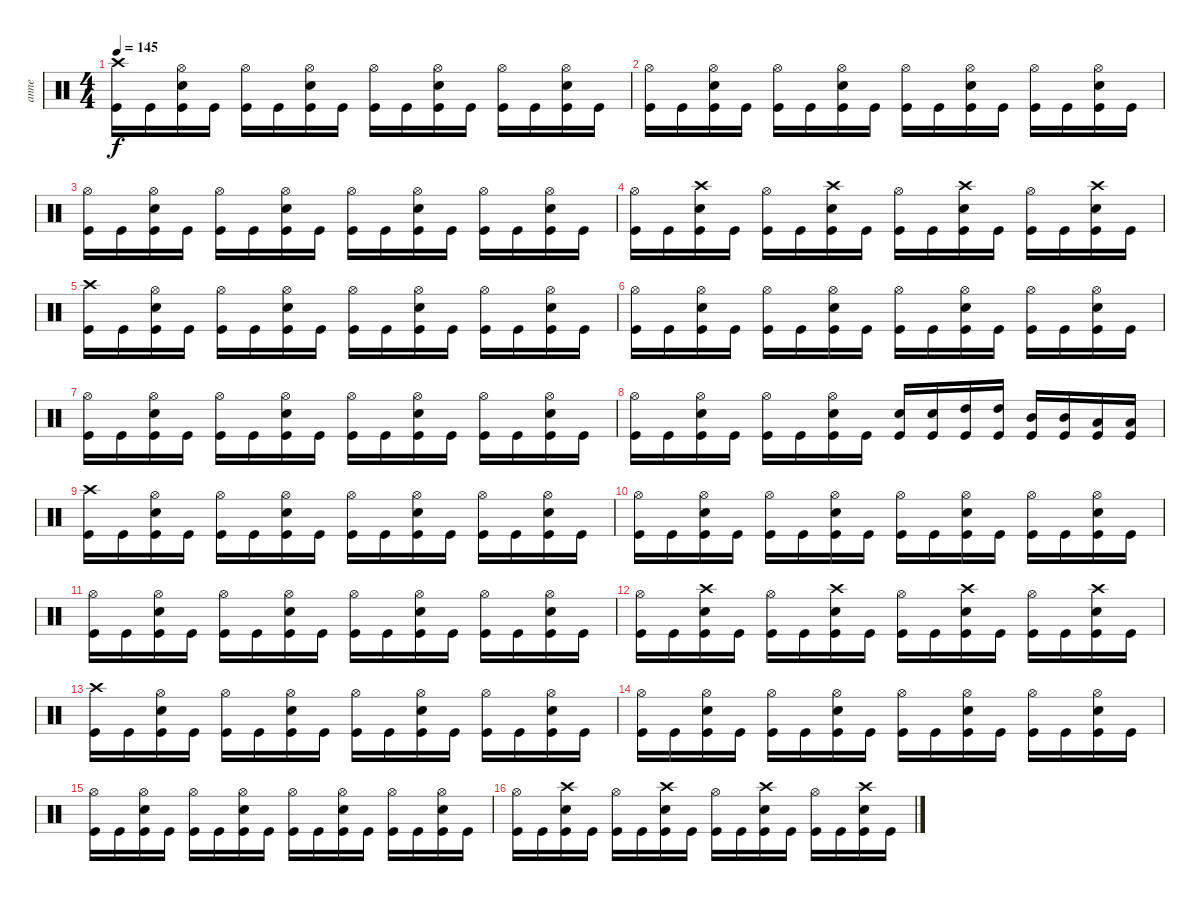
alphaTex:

\track ("anne" "anne") {instrument percussion}
\staff {score}
\articulation defaults
\ts (4 4)
\tempo 145
\clef neutral
\ks c
("Crash high (hit)" "Kick (hit)").16{dy f} "Kick (hit)".16 ("Hi-Hat (open)" "Snare (hit) 2" "Kick (hit)").16 "Kick (hit)".16 ("Hi-Hat (open)" "Kick (hit)").16 "Kick (hit)".16 ("Hi-Hat (open)" "Snare (hit) 2" "Kick (hit)").16 "Kick (hit)".16 ("Hi-Hat (open)" "Kick (hit)").16 "Kick (hit)".16 ("Hi-Hat (open)" "Snare (hit) 2" "Kick (hit)").16 "Kick (hit)".16 ("Hi-Hat (open)" "Kick (hit)").16 "Kick (hit)".16 ("Hi-Hat (open)" "Snare (hit) 2" "Kick (hit)").16 "Kick (hit)".16 |
("Hi-Hat (open)" "Kick (hit)").16 "Kick (hit)".16 ("Hi-Hat (open)" "Snare (hit) 2" "Kick (hit)").16 "Kick (hit)".16 ("Hi-Hat (open)" "Kick (hit)").16 "Kick (hit)".16 ("Hi-Hat (open)" "Snare (hit) 2" "Kick (hit)").16 "Kick (hit)".16 ("Hi-Hat (open)" "Kick (hit)").16 "Kick (hit)".16 ("Hi-Hat (open)" "Snare (hit) 2" "Kick (hit)").16 "Kick (hit)".16 ("Hi-Hat (open)" "Kick (hit)").16 "Kick (hit)".16 ("Hi-Hat (open)" "Snare (hit) 2" "Kick (hit)").16 "Kick (hit)".16 |
("Hi-Hat (open)" "Kick (hit)").16 "Kick (hit)".16 ("Hi-Hat (open)" "Snare (hit) 2" "Kick (hit)").16 "Kick (hit)".16 ("Hi-Hat (open)" "Kick (hit)").16 "Kick (hit)".16 ("Hi-Hat (open)" "Snare (hit) 2" "Kick (hit)").16 "Kick (hit)".16 ("Hi-Hat (open)" "Kick (hit)").16 "Kick (hit)".16 ("Hi-Hat (open)" "Snare (hit) 2" "Kick (hit)").16 "Kick (hit)".16 ("Hi-Hat (open)" "Kick (hit)").16 "Kick (hit)".16 ("Hi-Hat (open)" "Snare (hit) 2" "Kick (hit)").16 "Kick (hit)".16 |
("Hi-Hat (open)" "Kick (hit)").16 "Kick (hit)".16 ("Crash high (hit)" "Snare (hit) 2" "Kick (hit)").16 "Kick (hit)".16 ("Hi-Hat (open)" "Kick (hit)").16 "Kick (hit)".16 ("Crash high (hit)" "Snare (hit) 2" "Kick (hit)").16 "Kick (hit)".16 ("Hi-Hat (open)" "Kick (hit)").16 "Kick (hit)".16 ("Crash high (hit)" "Snare (hit) 2" "Kick (hit)").16 "Kick (hit)".16 ("Hi-Hat (open)" "Kick (hit)").16 "Kick (hit)".16 ("Crash high (hit)" "Snare (hit) 2" "Kick (hit)").16 "Kick (hit)".16 |
("Crash high (hit)" "Kick (hit)").16 "Kick (hit)".16 ("Hi-Hat (open)" "Snare (hit) 2" "Kick (hit)").16 "Kick (hit)".16 ("Hi-Hat (open)" "Kick (hit)").16 "Kick (hit)".16 ("Hi-Hat (open)" "Snare (hit) 2" "Kick (hit)").16 "Kick (hit)".16 ("Hi-Hat (open)" "Kick (hit)").16 "Kick (hit)".16 ("Hi-Hat (open)" "Snare (hit) 2" "Kick (hit)").16 "Kick (hit)".16 ("Hi-Hat (open)" "Kick (hit)").16 "Kick (hit)".16 ("Hi-Hat (open)" "Snare (hit) 2" "Kick (hit)").16 "Kick (hit)".16 |
("Hi-Hat (open)" "Kick (hit)").16 "Kick (hit)".16 ("Hi-Hat (open)" "Snare (hit) 2" "Kick (hit)").16 "Kick (hit)".16 ("Hi-Hat (open)" "Kick (hit)").16 "Kick (hit)".16 ("Hi-Hat (open)" "Snare (hit) 2" "Kick (hit)").16 "Kick (hit)".16 ("Hi-Hat (open)" "Kick (hit)").16 "Kick (hit)".16 ("Hi-Hat (open)" "Snare (hit) 2" "Kick (hit)").16 "Kick (hit)".16 ("Hi-Hat (open)" "Kick (hit)").16 "Kick (hit)".16 ("Hi-Hat (open)" "Snare (hit) 2" "Kick (hit)").16 "Kick (hit)".16 |
("Hi-Hat (open)" "Kick (hit)").16 "Kick (hit)".16 ("Hi-Hat (open)" "Snare (hit) 2" "Kick (hit)").16 "Kick (hit)".16 ("Hi-Hat (open)" "Kick (hit)").16 "Kick (hit)".16 ("Hi-Hat (open)" "Snare (hit) 2" "Kick (hit)").16 "Kick (hit)".16 ("Hi-Hat (open)" "Kick (hit)").16 "Kick (hit)".16 ("Hi-Hat (open)" "Snare (hit) 2" "Kick (hit)").16 "Kick (hit)".16 ("Hi-Hat (open)" "Kick (hit)").16 "Kick (hit)".16 ("Hi-Hat (open)" "Snare (hit) 2" "Kick (hit)").16 "Kick (hit)".16 |
("Hi-Hat (open)" "Kick (hit)").16 "Kick (hit)".16 ("Hi-Hat (open)" "Snare (hit) 2" "Kick (hit)").16 "Kick (hit)".16 ("Hi-Hat (open)" "Kick (hit)").16 "Kick (hit)".16 ("Hi-Hat (open)" "Snare (hit) 2" "Kick (hit)").16 "Kick (hit)".16 ("Snare (hit) 2" "Kick (hit)").16 ("Snare (hit) 2" "Kick (hit)").16 ("High Tom (hit)" "Kick (hit)").16 ("High Tom (hit)" "Kick (hit)").16 ("Mid Tom (hit)" "Kick (hit)").16 ("Mid Tom (hit)" "Kick (hit)").16 ("Low Tom (hit)" "Kick (hit)").16 ("Low Tom (hit)" "Kick (hit)").16 |
("Crash high (hit)" "Kick (hit)").16 "Kick (hit)".16 ("Hi-Hat (open)" "Snare (hit) 2" "Kick (hit)").16 "Kick (hit)".16 ("Hi-Hat (open)" "Kick (hit)").16 "Kick (hit)".16 ("Hi-Hat (open)" "Snare (hit) 2" "Kick (hit)").16 "Kick (hit)".16 ("Hi-Hat (open)" "Kick (hit)").16 "Kick (hit)".16 ("Hi-Hat (open)" "Snare (hit) 2" "Kick (hit)").16 "Kick (hit)".16 ("Hi-Hat (open)" "Kick (hit)").16 "Kick (hit)".16 ("Hi-Hat (open)" "Snare (hit) 2" "Kick (hit)").16 "Kick (hit)".16 |
("Hi-Hat (open)" "Kick (hit)").16 "Kick (hit)".16 ("Hi-Hat (open)" "Snare (hit) 2" "Kick (hit)").16 "Kick (hit)".16 ("Hi-Hat (open)" "Kick (hit)").16 "Kick (hit)".16 ("Hi-Hat (open)" "Snare (hit) 2" "Kick (hit)").16 "Kick (hit)".16 ("Hi-Hat (open)" "Kick (hit)").16 "Kick (hit)".16 ("Hi-Hat (open)" "Snare (hit) 2" "Kick (hit)").16 "Kick (hit)".16 ("Hi-Hat (open)" "Kick (hit)").16 "Kick (hit)".16 ("Hi-Hat (open)" "Snare (hit) 2" "Kick (hit)").16 "Kick (hit)".16 |
("Hi-Hat (open)" "Kick (hit)").16 "Kick (hit)".16 ("Hi-Hat (open)" "Snare (hit) 2" "Kick (hit)").16 "Kick (hit)".16 ("Hi-Hat (open)" "Kick (hit)").16 "Kick (hit)".16 ("Hi-Hat (open)" "Snare (hit) 2" "Kick (hit)").16 "Kick (hit)".16 ("Hi-Hat (open)" "Kick (hit)").16 "Kick (hit)".16 ("Hi-Hat (open)" "Snare (hit) 2" "Kick (hit)").16 "Kick (hit)".16 ("Hi-Hat (open)" "Kick (hit)").16 "Kick (hit)".16 ("Hi-Hat (open)" "Snare (hit) 2" "Kick (hit)").16 "Kick (hit)".16 |
("Hi-Hat (open)" "Kick (hit)").16 "Kick (hit)".16 ("Crash high (hit)" "Snare (hit) 2" "Kick (hit)").16 "Kick (hit)".16 ("Hi-Hat (open)" "Kick (hit)").16 "Kick (hit)".16 ("Crash high (hit)" "Snare (hit) 2" "Kick (hit)").16 "Kick (hit)".16 ("Hi-Hat (open)" "Kick (hit)").16 "Kick (hit)".16 ("Crash high (hit)" "Snare (hit) 2" "Kick (hit)").16 "Kick (hit)".16 ("Hi-Hat (open)" "Kick (hit)").16 "Kick (hit)".16 ("Crash high (hit)" "Snare (hit) 2" "Kick (hit)").16 "Kick (hit)".16 |
("Crash high (hit)" "Kick (hit)").16 "Kick (hit)".16 ("Hi-Hat (open)" "Snare (hit) 2" "Kick (hit)").16 "Kick (hit)".16 ("Hi-Hat (open)" "Kick (hit)").16 "Kick (hit)".16 ("Hi-Hat (open)" "Snare (hit) 2" "Kick (hit)").16 "Kick (hit)".16 ("Hi-Hat (open)" "Kick (hit)").16 "Kick (hit)".16 ("Hi-Hat (open)" "Snare (hit) 2" "Kick (hit)").16 "Kick (hit)".16 ("Hi-Hat (open)" "Kick (hit)").16 "Kick (hit)".16 ("Hi-Hat (open)" "Snare (hit) 2" "Kick (hit)").16 "Kick (hit)".16 |
("Hi-Hat (open)" "Kick (hit)").16 "Kick (hit)".16 ("Hi-Hat (open)" "Snare (hit) 2" "Kick (hit)").16 "Kick (hit)".16 ("Hi-Hat (open)" "Kick (hit)").16 "Kick (hit)".16 ("Hi-Hat (open)" "Snare (hit) 2" "Kick (hit)").16 "Kick (hit)".16 ("Hi-Hat (open)" "Kick (hit)").16 "Kick (hit)".16 ("Hi-Hat (open)" "Snare (hit) 2" "Kick (hit)").16 "Kick (hit)".16 ("Hi-Hat (open)" "Kick (hit)").16 "Kick (hit)".16 ("Hi-Hat (open)" "Snare (hit) 2" "Kick (hit)").16 "Kick (hit)".16 |
("Hi-Hat (open)" "Kick (hit)").16 "Kick (hit)".16 ("Hi-Hat (open)" "Snare (hit) 2" "Kick (hit)").16 "Kick (hit)".16 ("Hi-Hat (open)" "Kick (hit)").16 "Kick (hit)".16 ("Hi-Hat (open)" "Snare (hit) 2" "Kick (hit)").16 "Kick (hit)".16 ("Hi-Hat (open)" "Kick (hit)").16 "Kick (hit)".16 ("Hi-Hat (open)" "Snare (hit) 2" "Kick (hit)").16 "Kick (hit)".16 ("Hi-Hat (open)" "Kick (hit)").16 "Kick (hit)".16 ("Hi-Hat (open)" "Snare (hit) 2" "Kick (hit)").16 "Kick (hit)".16 |
("Hi-Hat (open)" "Kick (hit)").16 "Kick (hit)".16 ("Crash high (hit)" "Snare (hit) 2" "Kick (hit)").16 "Kick (hit)".16 ("Hi-Hat (open)" "Kick (hit)").16 "Kick (hit)".16 ("Crash high (hit)" "Snare (hit) 2" "Kick (hit)").16 "Kick (hit)".16 ("Hi-Hat (open)" "Kick (hit)").16 "Kick (hit)".16 ("Crash high (hit)" "Snare (hit) 2" "Kick (hit)").16 "Kick (hit)".16 ("Hi-Hat (open)" "Kick (hit)").16 "Kick (hit)".16 ("Crash high (hit)" "Snare (hit) 2" "Kick (hit)").16 "Kick (hit)".16
